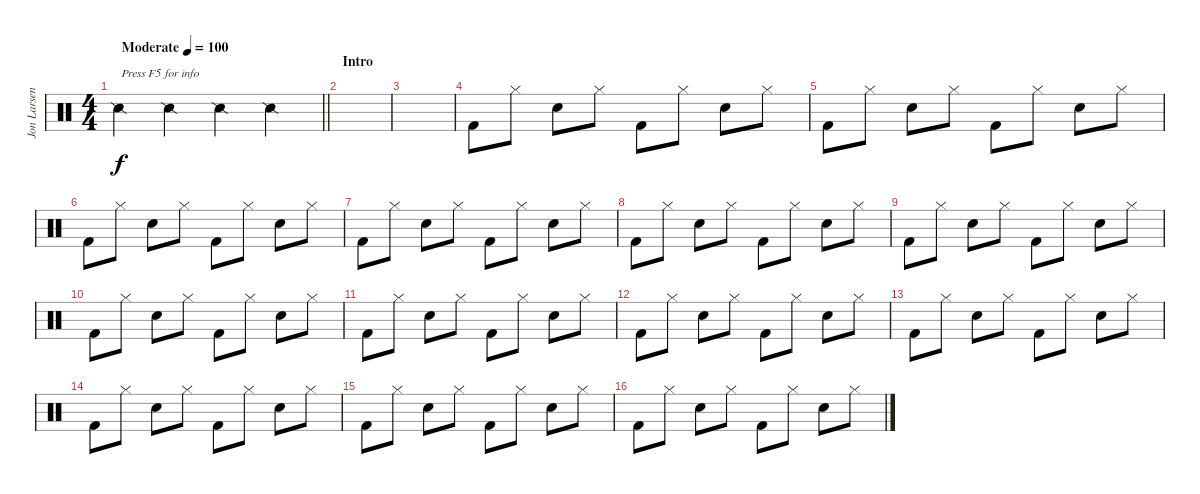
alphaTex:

\track ("Jon Larsen" "Jon Larsen") {instrument percussion}
\staff {score}
\articulation defaults
\ts (4 4)
\tempo (100 "Moderate")
\clef neutral
\barLineRight lightlight
\ks c "Snare (side stick) 2".4{txt "Press F5 for info" dy f} "Snare (side stick) 2".4 "Snare (side stick) 2".4 "Snare (side stick) 2".4
|
\section ("" "Intro")
|
|
"Kick (hit) 2".8 "Hi-Hat (closed)".8 "Snare (hit) 2".8 "Hi-Hat (closed)".8 "Kick (hit) 2".8 "Hi-Hat (closed)".8 "Snare (hit) 2".8 "Hi-Hat (closed)".8 |
"Kick (hit) 2".8 "Hi-Hat (closed)".8 "Snare (hit) 2".8 "Hi-Hat (closed)".8 "Kick (hit) 2".8 "Hi-Hat (closed)".8 "Snare (hit) 2".8 "Hi-Hat (closed)".8 |
"Kick (hit) 2".8 "Hi-Hat (closed)".8 "Snare (hit) 2".8 "Hi-Hat (closed)".8 "Kick (hit) 2".8 "Hi-Hat (closed)".8 "Snare (hit) 2".8 "Hi-Hat (closed)".8 |
"Kick (hit) 2".8 "Hi-Hat (closed)".8 "Snare (hit) 2".8 "Hi-Hat (closed)".8 "Kick (hit) 2".8 "Hi-Hat (closed)".8 "Snare (hit) 2".8 "Hi-Hat (closed)".8 |
"Kick (hit) 2".8 "Hi-Hat (closed)".8 "Snare (hit) 2".8 "Hi-Hat (closed)".8 "Kick (hit) 2".8 "Hi-Hat (closed)".8 "Snare (hit) 2".8 "Hi-Hat (closed)".8 |
"Kick (hit) 2".8 "Hi-Hat (closed)".8 "Snare (hit) 2".8 "Hi-Hat (closed)".8 "Kick (hit) 2".8 "Hi-Hat (closed)".8 "Snare (hit) 2".8 "Hi-Hat (closed)".8 |
"Kick (hit) 2".8 "Hi-Hat (closed)".8 "Snare (hit) 2".8 "Hi-Hat (closed)".8 "Kick (hit) 2".8 "Hi-Hat (closed)".8 "Snare (hit) 2".8 "Hi-Hat (closed)".8 |
"Kick (hit) 2".8 "Hi-Hat (closed)".8 "Snare (hit) 2".8 "Hi-Hat (closed)".8 "Kick (hit) 2".8 "Hi-Hat (closed)".8 "Snare (hit) 2".8 "Hi-Hat (closed)".8 |
"Kick (hit) 2".8 "Hi-Hat (closed)".8 "Snare (hit) 2".8 "Hi-Hat (closed)".8 "Kick (hit) 2".8 "Hi-Hat (closed)".8 "Snare (hit) 2".8 "Hi-Hat (closed)".8 |
"Kick (hit) 2".8 "Hi-Hat (closed)".8 "Snare (hit) 2".8 "Hi-Hat (closed)".8 "Kick (hit) 2".8 "Hi-Hat (closed)".8 "Snare (hit) 2".8 "Hi-Hat (closed)".8 |
"Kick (hit) 2".8 "Hi-Hat (closed)".8 "Snare (hit) 2".8 "Hi-Hat (closed)".8 "Kick (hit) 2".8 "Hi-Hat (closed)".8 "Snare (hit) 2".8 "Hi-Hat (closed)".8 |
"Kick (hit) 2".8 "Hi-Hat (closed)".8 "Snare (hit) 2".8 "Hi-Hat (closed)".8 "Kick (hit) 2".8 "Hi-Hat (closed)".8 "Snare (hit) 2".8 "Hi-Hat (closed)".8 |
"Kick (hit) 2".8 "Hi-Hat (closed)".8 "Snare (hit) 2".8 "Hi-Hat (closed)".8 "Kick (hit) 2".8 "Hi-Hat (closed)".8 "Snare (hit) 2".8 "Hi-Hat (closed)".8
